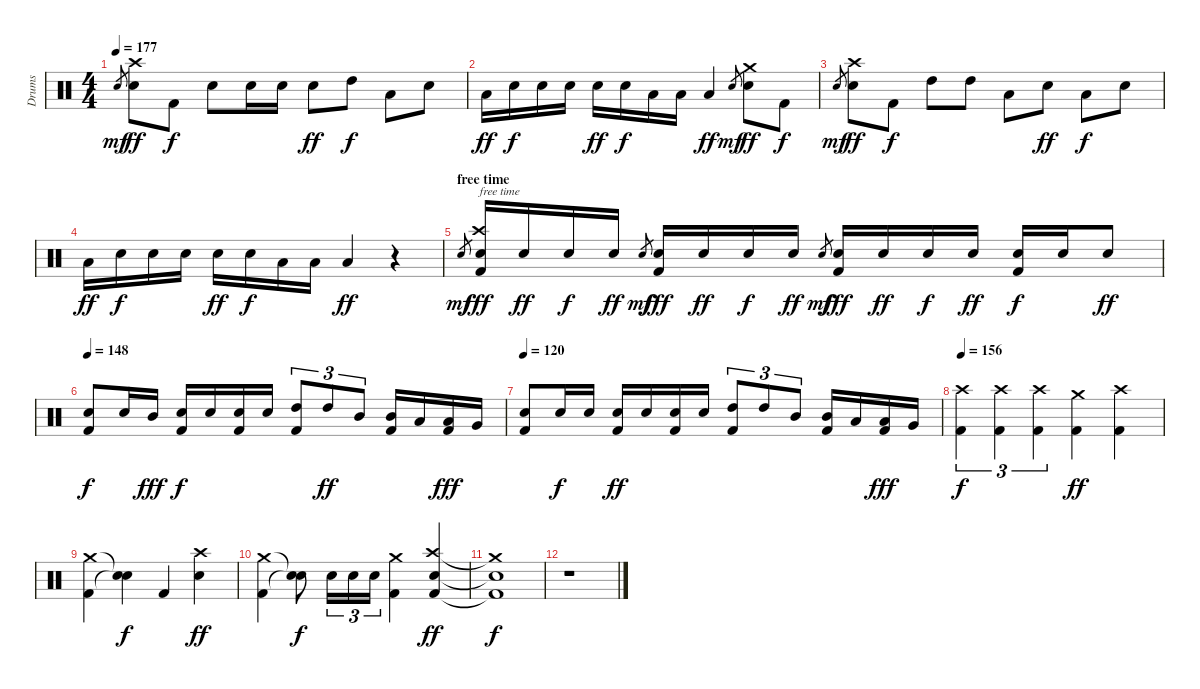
\track ("Drums" "Drums") {instrument percussion}
\staff {score}
\articulation defaults
\ts (4 4)
\tempo 177
\clef neutral
\ks c "Electric Snare (hit)".8{gr dy mf}
("Crash high (hit)" "Electric Snare (hit)").8{dy ff} "Kick (hit) 2".8{dy f} "Electric Snare (hit)".8 "Electric Snare (hit)".16 "Electric Snare (hit)".16 "Electric Snare (hit)".8{dy ff} "High Tom (hit)".8{dy f} "Low Tom (hit)".8 "Electric Snare (hit)".8 |
"Low Tom (hit)".16{dy ff} "Electric Snare (hit)".16{dy f} "Electric Snare (hit)".16 "Electric Snare (hit)".16 "Electric Snare (hit)".16{dy ff} "Electric Snare (hit)".16{dy f} "Low Tom (hit)".16 "Low Tom (hit)".16 "Low Tom (hit)".4{dy ff} "Electric Snare (hit)".8{gr dy mf} ("Crash medium (hit)" "Electric Snare (hit)").8{dy ff} "Kick (hit) 2".8{dy f} |
"Electric Snare (hit)".8{gr dy mf} ("Crash high (hit)" "Electric Snare (hit)").8{dy ff} "Kick (hit) 2".8{dy f} "High Tom (hit)".8 "High Tom (hit)".8 "Low Tom (hit)".8 "Electric Snare (hit)".8{dy ff} "Low Tom (hit)".8{dy f} "Electric Snare (hit)".8 |
"Low Tom (hit)".16{dy ff} "Electric Snare (hit)".16{dy f} "Electric Snare (hit)".16 "Electric Snare (hit)".16 "Electric Snare (hit)".16{dy ff} "Electric Snare (hit)".16{dy f} "Low Tom (hit)".16 "Low Tom (hit)".16 "Low Tom (hit)".4{dy ff} r.4 |
\section ("" "free time")
"Electric Snare (hit)".8{gr dy mf} ("Crash high (hit)" "Electric Snare (hit)" "Kick (hit) 2").16{txt "free time" dy fff} "Electric Snare (hit)".16{dy ff} "Electric Snare (hit)".16{dy f} "Electric Snare (hit)".16{dy ff} "Electric Snare (hit)".8{gr dy mf} ("Electric Snare (hit)" "Kick (hit) 2").16{dy fff} "Electric Snare (hit)".16{dy ff} "Electric Snare (hit)".16{dy f} "Electric Snare (hit)".16{dy ff} "Electric Snare (hit)".8{gr dy mf} ("Electric Snare (hit)" "Kick (hit) 2").16{dy fff} "Electric Snare (hit)".16{dy ff} "Electric Snare (hit)".16{dy f} "Electric Snare (hit)".16{dy ff} ("Electric Snare (hit)" "Kick (hit) 2").16{dy f} "Electric Snare (hit)".16 "Electric Snare (hit)".8{dy ff} |
\tempo 148
("Electric Snare (hit)" "Kick (hit) 2").8{dy f} "Electric Snare (hit)".16 "Mid Tom (hit)".16{dy fff} ("Electric Snare (hit)" "Kick (hit) 2").16{dy f} "Electric Snare (hit)".16 ("Electric Snare (hit)" "Kick (hit) 2").16 "Electric Snare (hit)".16 ("High Tom (hit)" "Kick (hit) 2").8{tu (3 2)} "High Tom (hit)".8{tu (3 2) dy ff} "Mid Tom (hit)".8{tu (3 2)} ("Mid Tom (hit)" "Kick (hit) 2").16 "Low Tom (hit)".16 ("Low Tom (hit)" "Kick (hit) 2").16{dy fff} "Very Low Tom (hit)".16 |
\tempo 120
("Electric Snare (hit)" "Kick (hit) 2").8 "Electric Snare (hit)".16{dy f} "Electric Snare (hit)".16 ("Electric Snare (hit)" "Kick (hit) 2").16{dy ff} "Electric Snare (hit)".16 ("Electric Snare (hit)" "Kick (hit) 2").16 "Electric Snare (hit)".16 ("High Tom (hit)" "Kick (hit) 2").8{tu (3 2)} "High Tom (hit)".8{tu (3 2)} "Mid Tom (hit)".8{tu (3 2)} ("Mid Tom (hit)" "Kick (hit) 2").16 "Low Tom (hit)".16 ("Low Tom (hit)" "Kick (hit) 2").16{dy fff} "Very Low Tom (hit)".16 |
\tempo 156
("Crash high (hit)" "Kick (hit) 2").4{tu (3 2) dy f} ("Crash high (hit)" "Kick (hit) 2").4{tu (3 2)} ("Crash high (hit)" "Kick (hit) 2").4{tu (3 2)} ("Crash medium (hit)" "Kick (hit) 2").4{dy ff} ("Crash high (hit)" "Kick (hit) 2").4 |
("Crash medium (hit)" "Kick (hit) 2").4 ("Snare (hit)"{t} "Snare (hit)"{t}).4{dy f} "Kick (hit) 2".4 ("Crash high (hit)" "Electric Snare (hit)").4{dy ff} |
("Crash medium (hit)" "Kick (hit) 2").4 ("Snare (hit)"{t} "Snare (hit)"{t}).8{dy f} "Electric Snare (hit)".16{tu (3 2)} "Electric Snare (hit)".16{tu (3 2)} "Electric Snare (hit)".16{tu (3 2)} ("Crash medium (hit)" "Kick (hit) 2").4 ("Crash high (hit)" "Electric Snare (hit)" "Kick (hit) 2").4{dy ff} |
("Crash medium (hit)"{t} "Electric Snare (hit)"{t} "Kick (hit) 2"{t}).1{dy f} |
r.1
